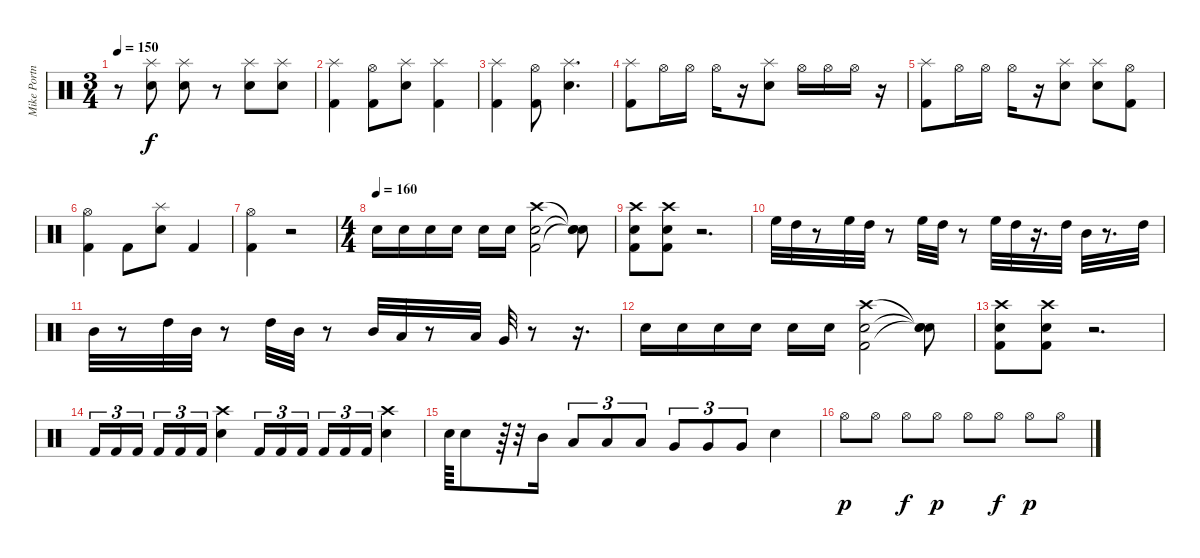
\track ("Mike Portnoy" "Mike Portn") {instrument percussion}
\staff {score}
\articulation defaults
\ts (3 4)
\tempo 150
\clef neutral
\ks c
r.8{dy f} ("Electric Snare (hit)" "Splash (hit)").8 ("Electric Snare (hit)" "Splash (hit)").8 r.8 ("Electric Snare (hit)" "Splash (hit)").8 ("Electric Snare (hit)" "Splash (hit)").8 |
("Kick (hit) 2" "Splash (hit)").4 ("Kick (hit) 2" "Hi-Hat (open)").8 ("Electric Snare (hit)" "Splash (hit)").8 ("Kick (hit) 2" "Splash (hit)").4 |
("Kick (hit) 2" "Splash (hit)").4 ("Kick (hit) 2" "Hi-Hat (open)").8 ("Electric Snare (hit)" "Splash (hit)").4{d} |
("Kick (hit) 2" "Splash (hit)").8 "Hi-Hat (open)".16 "Hi-Hat (open)".16 "Hi-Hat (open)".16 r.16 ("Electric Snare (hit)" "Splash (hit)").8 "Hi-Hat (open)".16 "Hi-Hat (open)".16 "Hi-Hat (open)".16 r.16 |
("Kick (hit) 2" "Splash (hit)").8 "Hi-Hat (open)".16 "Hi-Hat (open)".16 "Hi-Hat (open)".16 r.16 ("Electric Snare (hit)" "Splash (hit)").8 ("Electric Snare (hit)" "Splash (hit)").8 ("Kick (hit) 2" "Hi-Hat (open)").8 |
("Kick (hit) 2" "Hi-Hat (open)").4 "Kick (hit) 2".8 ("Electric Snare (hit)" "Splash (hit)").8 "Kick (hit) 2".4 |
("Kick (hit) 2" "Hi-Hat (open)").4 r.2 |
\ts (4 4)
\tempo (160)
"Electric Snare (hit)".16 "Electric Snare (hit)".16 "Electric Snare (hit)".16 "Electric Snare (hit)".16 "Electric Snare (hit)".16 "Electric Snare (hit)".16 ("Electric Snare (hit)" "Crash high (hit)" "Kick (hit) 2").2 ("Snare (hit)"{t} "Snare (hit)"{t} "Snare (hit)"{t}).8 |
("Electric Snare (hit)" "Crash high (hit)" "Kick (hit) 2").8 ("Electric Snare (hit)" "Crash high (hit)" "Kick (hit) 2").8 r.2{d} |
"High Floor Tom (hit)".32 "High Tom (hit)".32 r.8 "High Floor Tom (hit)".32 "High Tom (hit)".32 r.8 "High Floor Tom (hit)".32 "High Tom (hit)".32 r.8 "High Floor Tom (hit)".32 "High Tom (hit)".32 r.16{d} "High Tom (hit)".32 "Mid Tom (hit)".32 r.8{d} "High Tom (hit)".32 |
"Mid Tom (hit)".32 r.8 "High Tom (hit)".32 "Mid Tom (hit)".32 r.8 "High Tom (hit)".32 "Mid Tom (hit)".32 r.8 "Mid Tom (hit)".32 "Low Tom (hit)".32 r.8 "Low Tom (hit)".32 "Very Low Tom (hit)".32 r.8 r.16{d} |
"Electric Snare (hit)".16 "Electric Snare (hit)".16 "Electric Snare (hit)".16 "Electric Snare (hit)".16 "Electric Snare (hit)".16 "Electric Snare (hit)".16 ("Electric Snare (hit)" "Crash high (hit)" "Kick (hit) 2").2 ("Snare (hit)"{t} "Snare (hit)"{t} "Snare (hit)"{t}).8 |
("Electric Snare (hit)" "Crash high (hit)" "Kick (hit) 2").8 ("Electric Snare (hit)" "Crash high (hit)" "Kick (hit) 2").8 r.2{d} |
"Kick (hit) 2".16{tu (3 2)} "Kick (hit) 2".16{tu (3 2)} "Kick (hit) 2".16{tu (3 2) beam splitsecondary} "Kick (hit) 2".16{tu (3 2)} "Kick (hit) 2".16{tu (3 2)} "Kick (hit) 2".16{tu (3 2)} ("Electric Snare (hit)" "Crash high (hit)").4 "Kick (hit) 2".16{tu (3 2)} "Kick (hit) 2".16{tu (3 2)} "Kick (hit) 2".16{tu (3 2) beam splitsecondary} "Kick (hit) 2".16{tu (3 2)} "Kick (hit) 2".16{tu (3 2)} "Kick (hit) 2".16{tu (3 2)} ("Electric Snare (hit)" "Crash high (hit)").4 |
"Electric Snare (hit)".64 "Electric Snare (hit)".8 r.64 r.32 "Mid Tom (hit)".16 "Low Tom (hit)".8{tu (3 2)} "Low Tom (hit)".8{tu (3 2)} "Low Tom (hit)".8{tu (3 2)} "Very Low Tom (hit)".8{tu (3 2)} "Very Low Tom (hit)".8{tu (3 2)} "Very Low Tom (hit)".8{tu (3 2)} "Electric Snare (hit)".4 |
"Hi-Hat (open)".8{dy p} "Hi-Hat (open)".8 "Hi-Hat (open)".8{dy f} "Hi-Hat (open)".8{dy p} "Hi-Hat (open)".8 "Hi-Hat (open)".8{dy f} "Hi-Hat (open)".8{dy p} "Hi-Hat (open)".8
